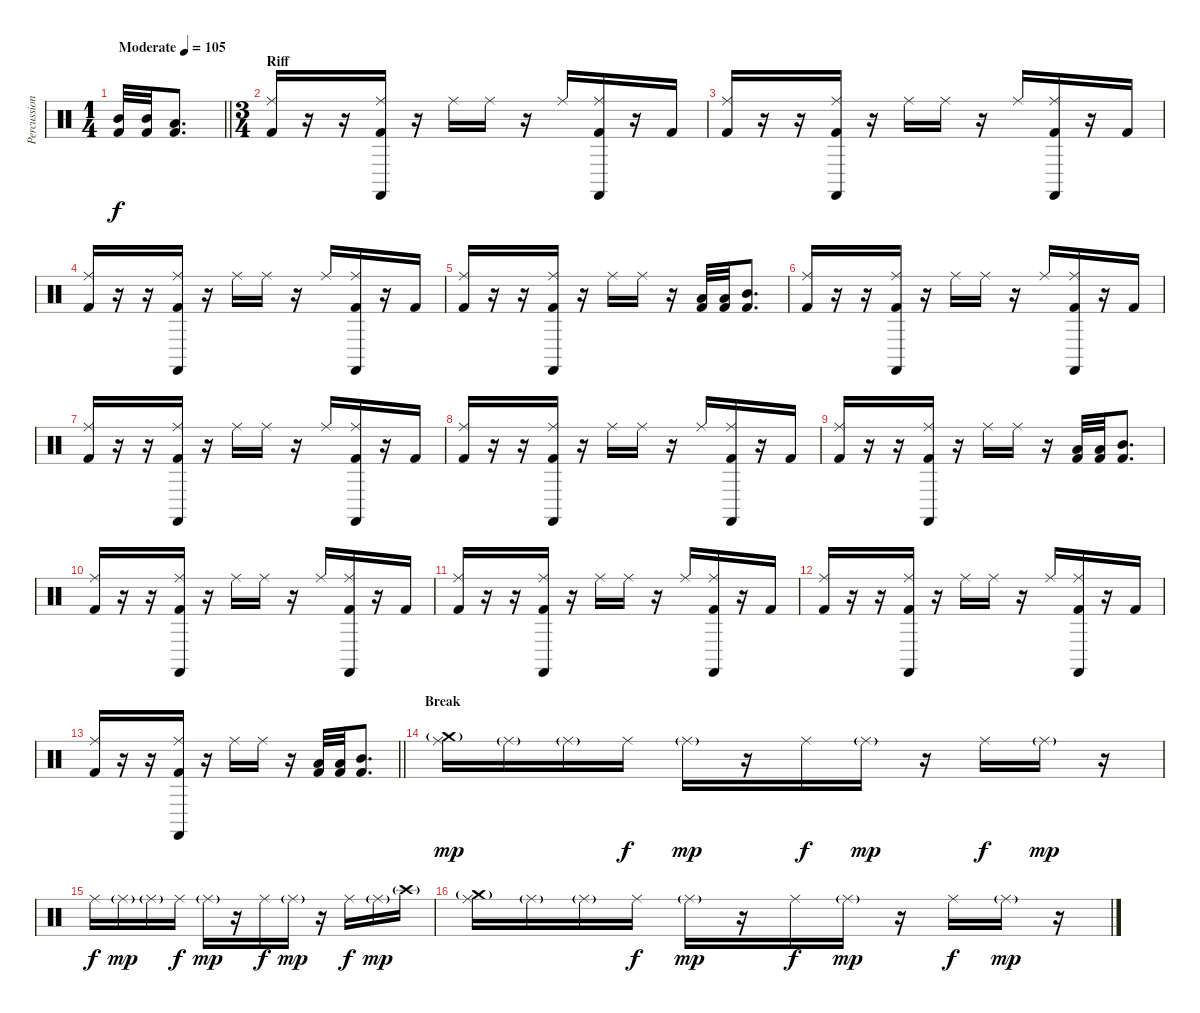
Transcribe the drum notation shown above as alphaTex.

\track ("Percussion" "Percussion") {instrument percussion}
\staff {score}
\articulation defaults
\ts (1 4)
\tempo (105 "Moderate")
\clef neutral
\barLineRight lightlight
\ks c
("Mid Tom (hit)" "Kick (hit) 2").32{dy f} ("Mid Tom (hit)" "Kick (hit) 2").32 ("Low Tom (hit)" "Kick (hit) 2").8{d} |
\ts (3 4)
\section ("" "Riff")
("Ride (middle)" "Kick (hit) 2").16 r.16 r.16 ("Ride (middle)" "Castanets (hit)" "Kick (hit) 2").16 r.16 "Ride (middle)".16 "Ride (middle)".16 r.16 "Ride (middle)".16 ("Ride (middle)" "Castanets (hit)" "Kick (hit) 2").16 r.16 "Kick (hit) 2".16 |
("Ride (middle)" "Kick (hit) 2").16 r.16 r.16 ("Ride (middle)" "Castanets (hit)" "Kick (hit) 2").16 r.16 "Ride (middle)".16 "Ride (middle)".16 r.16 "Ride (middle)".16 ("Ride (middle)" "Castanets (hit)" "Kick (hit) 2").16 r.16 "Kick (hit) 2".16 |
("Ride (middle)" "Kick (hit) 2").16 r.16 r.16 ("Ride (middle)" "Castanets (hit)" "Kick (hit) 2").16 r.16 "Ride (middle)".16 "Ride (middle)".16 r.16 "Ride (middle)".16 ("Ride (middle)" "Castanets (hit)" "Kick (hit) 2").16 r.16 "Kick (hit) 2".16 |
("Ride (middle)" "Kick (hit) 2").16 r.16 r.16 ("Ride (middle)" "Castanets (hit)" "Kick (hit) 2").16 r.16 "Ride (middle)".16 "Ride (middle)".16 r.16 ("Low Tom (hit)" "Kick (hit) 2").32 ("Low Tom (hit)" "Kick (hit) 2").32 ("Mid Tom (hit)" "Kick (hit) 2").8{d} |
("Ride (middle)" "Kick (hit) 2").16 r.16 r.16 ("Ride (middle)" "Castanets (hit)" "Kick (hit) 2").16 r.16 "Ride (middle)".16 "Ride (middle)".16 r.16 "Ride (middle)".16 ("Ride (middle)" "Castanets (hit)" "Kick (hit) 2").16 r.16 "Kick (hit) 2".16 |
("Ride (middle)" "Kick (hit) 2").16 r.16 r.16 ("Ride (middle)" "Castanets (hit)" "Kick (hit) 2").16 r.16 "Ride (middle)".16 "Ride (middle)".16 r.16 "Ride (middle)".16 ("Ride (middle)" "Castanets (hit)" "Kick (hit) 2").16 r.16 "Kick (hit) 2".16 |
("Ride (middle)" "Kick (hit) 2").16 r.16 r.16 ("Ride (middle)" "Castanets (hit)" "Kick (hit) 2").16 r.16 "Ride (middle)".16 "Ride (middle)".16 r.16 "Ride (middle)".16 ("Ride (middle)" "Castanets (hit)" "Kick (hit) 2").16 r.16 "Kick (hit) 2".16 |
("Ride (middle)" "Kick (hit) 2").16 r.16 r.16 ("Ride (middle)" "Castanets (hit)" "Kick (hit) 2").16 r.16 "Ride (middle)".16 "Ride (middle)".16 r.16 ("Low Tom (hit)" "Kick (hit) 2").32 ("Low Tom (hit)" "Kick (hit) 2").32 ("Mid Tom (hit)" "Kick (hit) 2").8{d} |
("Ride (middle)" "Kick (hit) 2").16 r.16 r.16 ("Ride (middle)" "Castanets (hit)" "Kick (hit) 2").16 r.16 "Ride (middle)".16 "Ride (middle)".16 r.16 "Ride (middle)".16 ("Ride (middle)" "Castanets (hit)" "Kick (hit) 2").16 r.16 "Kick (hit) 2".16 |
("Ride (middle)" "Kick (hit) 2").16 r.16 r.16 ("Ride (middle)" "Castanets (hit)" "Kick (hit) 2").16 r.16 "Ride (middle)".16 "Ride (middle)".16 r.16 "Ride (middle)".16 ("Ride (middle)" "Castanets (hit)" "Kick (hit) 2").16 r.16 "Kick (hit) 2".16 |
("Ride (middle)" "Kick (hit) 2").16 r.16 r.16 ("Ride (middle)" "Castanets (hit)" "Kick (hit) 2").16 r.16 "Ride (middle)".16 "Ride (middle)".16 r.16 "Ride (middle)".16 ("Ride (middle)" "Castanets (hit)" "Kick (hit) 2").16 r.16 "Kick (hit) 2".16 |
\barLineRight lightlight
("Ride (middle)" "Kick (hit) 2").16 r.16 r.16 ("Ride (middle)" "Castanets (hit)" "Kick (hit) 2").16 r.16 "Ride (middle)".16 "Ride (middle)".16 r.16 ("Low Tom (hit)" "Kick (hit) 2").32 ("Low Tom (hit)" "Kick (hit) 2").32 ("Mid Tom (hit)" "Kick (hit) 2").8{d} |
\section ("" "Break")
("Crash medium (hit)"{g} "Ride (middle)").16{dy mp} "Ride (middle)"{g}.16 "Ride (middle)"{g}.16 "Ride (middle)".16{dy f} "Ride (middle)"{g}.16{dy mp} r.16 "Ride (middle)".16{dy f} "Ride (middle)"{g}.16{dy mp} r.16 "Ride (middle)".16{dy f} "Ride (middle)"{g}.16{dy mp} r.16 |
"Ride (middle)".16{dy f} "Ride (middle)"{g}.16{dy mp} "Ride (middle)"{g}.16 "Ride (middle)".16{dy f} "Ride (middle)"{g}.16{dy mp} r.16 "Ride (middle)".16{dy f} "Ride (middle)"{g}.16{dy mp} r.16 "Ride (middle)".16{dy f} "Ride (middle)"{g}.16{dy mp} "Crash high (hit)"{g}.16 |
("Crash medium (hit)"{g} "Ride (middle)").16 "Ride (middle)"{g}.16 "Ride (middle)"{g}.16 "Ride (middle)".16{dy f} "Ride (middle)"{g}.16{dy mp} r.16 "Ride (middle)".16{dy f} "Ride (middle)"{g}.16{dy mp} r.16 "Ride (middle)".16{dy f} "Ride (middle)"{g}.16{dy mp} r.16
